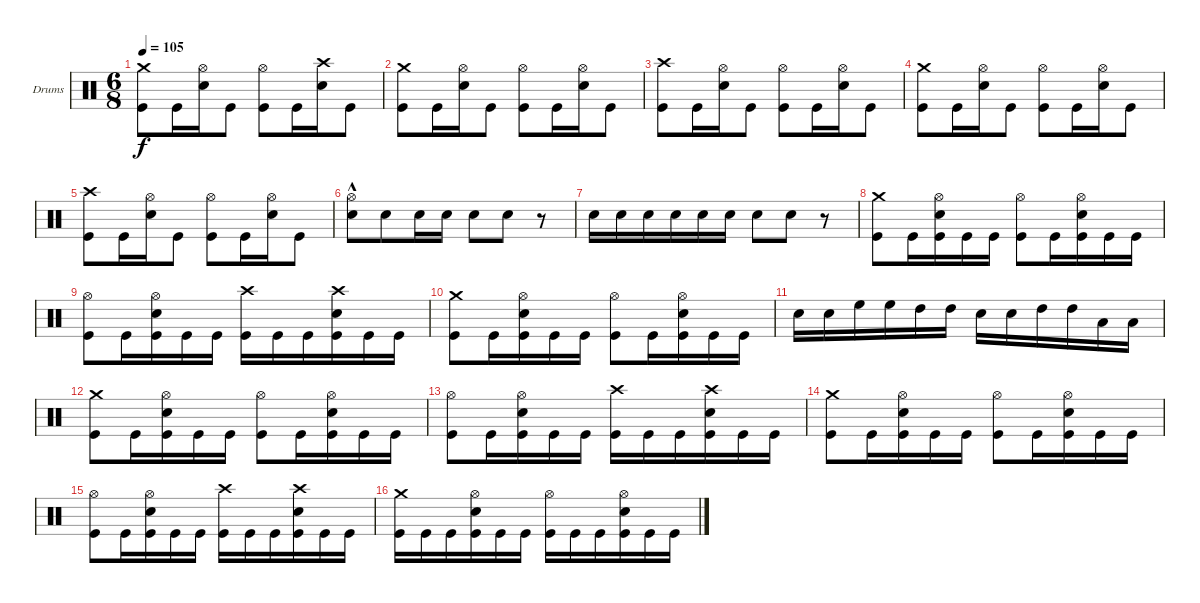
\defaultSystemsLayout 4
\bracketExtendMode groupsimilarinstruments
\firstSystemTrackNameOrientation horizontal
\otherSystemsTrackNameOrientation horizontal
\track ("Stefan Schwarzmann" "Drums") {instrument percussion}
\staff {score}
\articulation defaults
\ts (6 8)
\tempo 105
\clef neutral
\ks c
("Crash medium (hit)" "Kick (hit)").8{dy f} "Kick (hit)".16 ("Hi-Hat (open)" "Snare (hit) 2").16 "Kick (hit)".8 ("Hi-Hat (open)" "Kick (hit)").8 "Kick (hit)".16 ("Crash high (hit)" "Snare (hit) 2").16 "Kick (hit)".8 |
("Crash medium (hit)" "Kick (hit)").8 "Kick (hit)".16 ("Hi-Hat (open)" "Snare (hit) 2").16 "Kick (hit)".8 ("Hi-Hat (open)" "Kick (hit)").8 "Kick (hit)".16 ("Hi-Hat (open)" "Snare (hit) 2").16 "Kick (hit)".8 |
("Crash high (hit)" "Kick (hit)").8 "Kick (hit)".16 ("Hi-Hat (open)" "Snare (hit) 2").16 "Kick (hit)".8 ("Hi-Hat (open)" "Kick (hit)").8 "Kick (hit)".16 ("Hi-Hat (open)" "Snare (hit) 2").16 "Kick (hit)".8 |
("Crash medium (hit)" "Kick (hit)").8 "Kick (hit)".16 ("Hi-Hat (open)" "Snare (hit) 2").16 "Kick (hit)".8 ("Hi-Hat (open)" "Kick (hit)").8 "Kick (hit)".16 ("Hi-Hat (open)" "Snare (hit) 2").16 "Kick (hit)".8 |
("Crash high (hit)" "Kick (hit)").8 "Kick (hit)".16 ("Hi-Hat (open)" "Snare (hit) 2").16 "Kick (hit)".8 ("Hi-Hat (open)" "Kick (hit)").8 "Kick (hit)".16 ("Hi-Hat (open)" "Snare (hit) 2").16 "Kick (hit)".8 |
("Hi-Hat (open)"{hac} "Snare (hit) 2").8 "Snare (hit) 2".8 "Snare (hit) 2".16 "Snare (hit) 2".16 "Snare (hit) 2".8 "Snare (hit) 2".8 r.8 |
"Snare (hit) 2".16 "Snare (hit) 2".16 "Snare (hit) 2".16 "Snare (hit) 2".16 "Snare (hit) 2".16 "Snare (hit) 2".16 "Snare (hit) 2".8 "Snare (hit) 2".8 r.8 |
("Crash medium (hit)" "Kick (hit)").8 "Kick (hit)".16 ("Hi-Hat (open)" "Snare (hit) 2" "Kick (hit)").16 "Kick (hit)".16 "Kick (hit)".16 ("Hi-Hat (open)" "Kick (hit)").8 "Kick (hit)".16 ("Hi-Hat (open)" "Snare (hit) 2" "Kick (hit)").16 "Kick (hit)".16 "Kick (hit)".16 |
("Hi-Hat (open)" "Kick (hit)").8 "Kick (hit)".16 ("Hi-Hat (open)" "Snare (hit) 2" "Kick (hit)").16 "Kick (hit)".16 "Kick (hit)".16 ("Crash high (hit)" "Kick (hit)").16 "Kick (hit)".16 "Kick (hit)".16 ("Crash high (hit)" "Snare (hit) 2" "Kick (hit)").16 "Kick (hit)".16 "Kick (hit)".16 |
("Crash medium (hit)" "Kick (hit)").8 "Kick (hit)".16 ("Hi-Hat (open)" "Snare (hit) 2" "Kick (hit)").16 "Kick (hit)".16 "Kick (hit)".16 ("Hi-Hat (open)" "Kick (hit)").8 "Kick (hit)".16 ("Hi-Hat (open)" "Snare (hit) 2" "Kick (hit)").16 "Kick (hit)".16 "Kick (hit)".16 |
"Snare (hit) 2".16 "Snare (hit) 2".16 "High Floor Tom (hit)".16 "High Floor Tom (hit)".16 "High Tom (hit)".16 "High Tom (hit)".16 "Snare (hit) 2".16 "Snare (hit) 2".16 "High Tom (hit)".16 "High Tom (hit)".16 "Low Tom (hit)".16 "Low Tom (hit)".16 |
("Crash medium (hit)" "Kick (hit)").8 "Kick (hit)".16 ("Hi-Hat (open)" "Snare (hit) 2" "Kick (hit)").16 "Kick (hit)".16 "Kick (hit)".16 ("Hi-Hat (open)" "Kick (hit)").8 "Kick (hit)".16 ("Hi-Hat (open)" "Snare (hit) 2" "Kick (hit)").16 "Kick (hit)".16 "Kick (hit)".16 |
("Hi-Hat (open)" "Kick (hit)").8 "Kick (hit)".16 ("Hi-Hat (open)" "Snare (hit) 2" "Kick (hit)").16 "Kick (hit)".16 "Kick (hit)".16 ("Crash high (hit)" "Kick (hit)").16 "Kick (hit)".16 "Kick (hit)".16 ("Crash high (hit)" "Snare (hit) 2" "Kick (hit)").16 "Kick (hit)".16 "Kick (hit)".16 |
("Crash medium (hit)" "Kick (hit)").8 "Kick (hit)".16 ("Hi-Hat (open)" "Snare (hit) 2" "Kick (hit)").16 "Kick (hit)".16 "Kick (hit)".16 ("Hi-Hat (open)" "Kick (hit)").8 "Kick (hit)".16 ("Hi-Hat (open)" "Snare (hit) 2" "Kick (hit)").16 "Kick (hit)".16 "Kick (hit)".16 |
("Hi-Hat (open)" "Kick (hit)").8 "Kick (hit)".16 ("Hi-Hat (open)" "Snare (hit) 2" "Kick (hit)").16 "Kick (hit)".16 "Kick (hit)".16 ("Crash high (hit)" "Kick (hit)").16 "Kick (hit)".16 "Kick (hit)".16 ("Crash high (hit)" "Snare (hit) 2" "Kick (hit)").16 "Kick (hit)".16 "Kick (hit)".16 |
("Crash medium (hit)" "Kick (hit)").16 "Kick (hit)".16 "Kick (hit)".16 ("Hi-Hat (open)" "Snare (hit) 2" "Kick (hit)").16 "Kick (hit)".16 "Kick (hit)".16 ("Hi-Hat (open)" "Kick (hit)").16 "Kick (hit)".16 "Kick (hit)".16 ("Hi-Hat (open)" "Snare (hit) 2" "Kick (hit)").16 "Kick (hit)".16 "Kick (hit)".16
